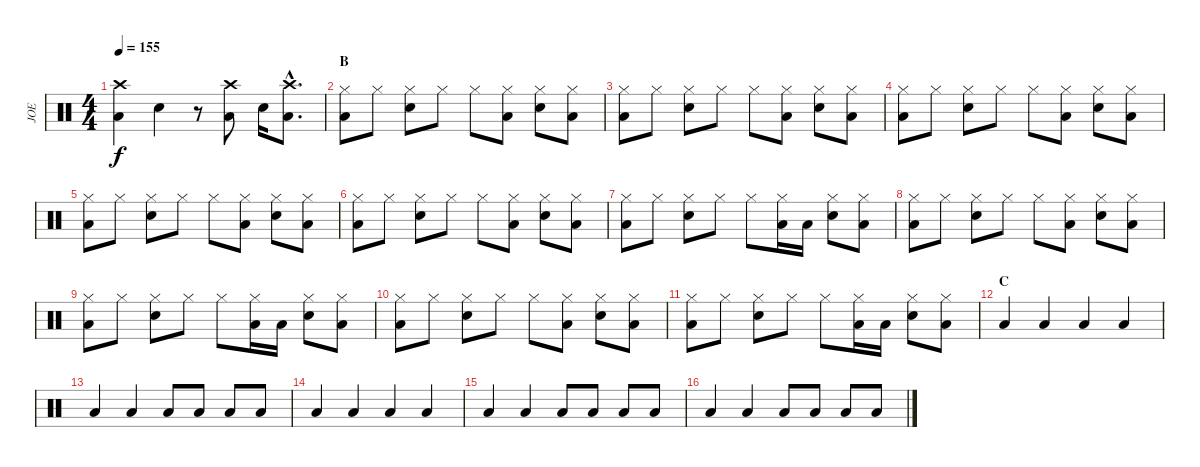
\track ("JOE" "JOE") {instrument percussion}
\staff {score}
\articulation defaults
\ts (4 4)
\tempo 155
\clef neutral
\ks c
("Crash high (hit)" "Low Floor Tom (hit)").4{dy f} "Electric Snare (hit)".4 r.8 ("Crash high (hit)" "Low Floor Tom (hit)").8 "Electric Snare (hit)".16 ("Crash high (hit)"{hac} "Low Floor Tom (hit)"{hac}).8{d} |
\section ("" "B")
("Hi-Hat (closed)" "Low Floor Tom (hit)").8 "Hi-Hat (closed)".8 ("Hi-Hat (closed)" "Electric Snare (hit)").8 "Hi-Hat (closed)".8 "Hi-Hat (closed)".8 ("Hi-Hat (closed)" "Low Floor Tom (hit)").8 ("Hi-Hat (closed)" "Electric Snare (hit)").8 ("Hi-Hat (closed)" "Low Floor Tom (hit)").8 |
("Hi-Hat (closed)" "Low Floor Tom (hit)").8 "Hi-Hat (closed)".8 ("Hi-Hat (closed)" "Electric Snare (hit)").8 "Hi-Hat (closed)".8 "Hi-Hat (closed)".8 ("Hi-Hat (closed)" "Low Floor Tom (hit)").8 ("Hi-Hat (closed)" "Electric Snare (hit)").8 ("Hi-Hat (closed)" "Low Floor Tom (hit)").8 |
("Hi-Hat (closed)" "Low Floor Tom (hit)").8 "Hi-Hat (closed)".8 ("Hi-Hat (closed)" "Electric Snare (hit)").8 "Hi-Hat (closed)".8 "Hi-Hat (closed)".8 ("Hi-Hat (closed)" "Low Floor Tom (hit)").8 ("Hi-Hat (closed)" "Electric Snare (hit)").8 ("Hi-Hat (closed)" "Low Floor Tom (hit)").8 |
("Hi-Hat (closed)" "Low Floor Tom (hit)").8 "Hi-Hat (closed)".8 ("Hi-Hat (closed)" "Electric Snare (hit)").8 "Hi-Hat (closed)".8 "Hi-Hat (closed)".8 ("Hi-Hat (closed)" "Low Floor Tom (hit)").8 ("Hi-Hat (closed)" "Electric Snare (hit)").8 ("Hi-Hat (closed)" "Low Floor Tom (hit)").8 |
("Hi-Hat (closed)" "Low Floor Tom (hit)").8 "Hi-Hat (closed)".8 ("Hi-Hat (closed)" "Electric Snare (hit)").8 "Hi-Hat (closed)".8 "Hi-Hat (closed)".8 ("Hi-Hat (closed)" "Low Floor Tom (hit)").8 ("Hi-Hat (closed)" "Electric Snare (hit)").8 ("Hi-Hat (closed)" "Low Floor Tom (hit)").8 |
("Hi-Hat (closed)" "Low Floor Tom (hit)").8 "Hi-Hat (closed)".8 ("Hi-Hat (closed)" "Electric Snare (hit)").8 "Hi-Hat (closed)".8 "Hi-Hat (closed)".8 ("Hi-Hat (closed)" "Low Floor Tom (hit)").16 "Low Floor Tom (hit)".16 ("Hi-Hat (closed)" "Electric Snare (hit)").8 ("Hi-Hat (closed)" "Low Floor Tom (hit)").8 |
("Hi-Hat (closed)" "Low Floor Tom (hit)").8 "Hi-Hat (closed)".8 ("Hi-Hat (closed)" "Electric Snare (hit)").8 "Hi-Hat (closed)".8 "Hi-Hat (closed)".8 ("Hi-Hat (closed)" "Low Floor Tom (hit)").8 ("Hi-Hat (closed)" "Electric Snare (hit)").8 ("Hi-Hat (closed)" "Low Floor Tom (hit)").8 |
("Hi-Hat (closed)" "Low Floor Tom (hit)").8 "Hi-Hat (closed)".8 ("Hi-Hat (closed)" "Electric Snare (hit)").8 "Hi-Hat (closed)".8 "Hi-Hat (closed)".8 ("Hi-Hat (closed)" "Low Floor Tom (hit)").16 "Low Floor Tom (hit)".16 ("Hi-Hat (closed)" "Electric Snare (hit)").8 ("Hi-Hat (closed)" "Low Floor Tom (hit)").8 |
("Hi-Hat (closed)" "Low Floor Tom (hit)").8 "Hi-Hat (closed)".8 ("Hi-Hat (closed)" "Electric Snare (hit)").8 "Hi-Hat (closed)".8 "Hi-Hat (closed)".8 ("Hi-Hat (closed)" "Low Floor Tom (hit)").8 ("Hi-Hat (closed)" "Electric Snare (hit)").8 ("Hi-Hat (closed)" "Low Floor Tom (hit)").8 |
("Hi-Hat (closed)" "Low Floor Tom (hit)").8 "Hi-Hat (closed)".8 ("Hi-Hat (closed)" "Electric Snare (hit)").8 "Hi-Hat (closed)".8 "Hi-Hat (closed)".8 ("Hi-Hat (closed)" "Low Floor Tom (hit)").16 "Low Floor Tom (hit)".16 ("Hi-Hat (closed)" "Electric Snare (hit)").8 ("Hi-Hat (closed)" "Low Floor Tom (hit)").8 |
\section ("" "C")
"Low Floor Tom (hit)".4 "Low Floor Tom (hit)".4 "Low Floor Tom (hit)".4 "Low Floor Tom (hit)".4 |
"Low Floor Tom (hit)".4 "Low Floor Tom (hit)".4 "Low Floor Tom (hit)".8 "Low Floor Tom (hit)".8 "Low Floor Tom (hit)".8 "Low Floor Tom (hit)".8 |
"Low Floor Tom (hit)".4 "Low Floor Tom (hit)".4 "Low Floor Tom (hit)".4 "Low Floor Tom (hit)".4 |
"Low Floor Tom (hit)".4 "Low Floor Tom (hit)".4 "Low Floor Tom (hit)".8 "Low Floor Tom (hit)".8 "Low Floor Tom (hit)".8 "Low Floor Tom (hit)".8 |
"Low Floor Tom (hit)".4 "Low Floor Tom (hit)".4 "Low Floor Tom (hit)".8 "Low Floor Tom (hit)".8 "Low Floor Tom (hit)".8 "Low Floor Tom (hit)".8
